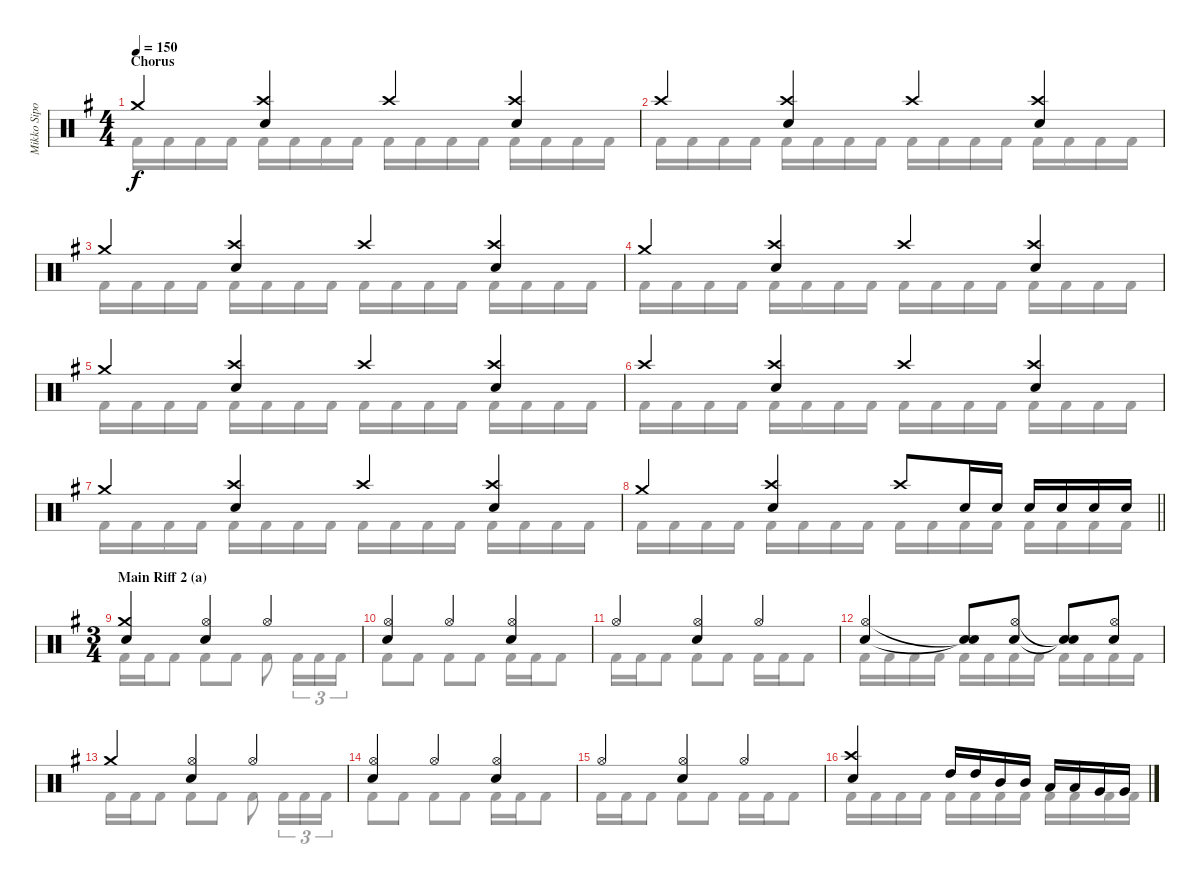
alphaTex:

\track ("Mikko Sipola (drums)" "Mikko Sipo") {instrument percussion}
\staff {score}
\articulation defaults
\voice
\ts (4 4)
\section ("" "Chorus")
\tempo 150
\clef neutral
\ks eminor "Crash medium (hit)".4{dy f}
("Crash high (hit)" "Electric Snare (hit)").4 "Crash high (hit)".4 ("Crash high (hit)" "Electric Snare (hit)").4 |
"Crash high (hit)".4 ("Crash high (hit)" "Electric Snare (hit)").4 "Crash high (hit)".4 ("Crash high (hit)" "Electric Snare (hit)").4 |
"Crash medium (hit)".4 ("Crash high (hit)" "Electric Snare (hit)").4 "Crash high (hit)".4 ("Crash high (hit)" "Electric Snare (hit)").4 |
"Crash medium (hit)".4 ("Crash high (hit)" "Electric Snare (hit)").4 "Crash high (hit)".4 ("Crash high (hit)" "Electric Snare (hit)").4 |
"Crash medium (hit)".4 ("Crash high (hit)" "Electric Snare (hit)").4 "Crash high (hit)".4 ("Crash high (hit)" "Electric Snare (hit)").4 |
"Crash high (hit)".4 ("Crash high (hit)" "Electric Snare (hit)").4 "Crash high (hit)".4 ("Crash high (hit)" "Electric Snare (hit)").4 |
"Crash medium (hit)".4 ("Crash high (hit)" "Electric Snare (hit)").4 "Crash high (hit)".4 ("Crash high (hit)" "Electric Snare (hit)").4 |
\barLineRight lightlight "Crash medium (hit)".4
("Crash high (hit)" "Electric Snare (hit)").4 "Crash high (hit)".8 "Electric Snare (hit)".16 "Electric Snare (hit)".16 "Electric Snare (hit)".16 "Electric Snare (hit)".16 "Electric Snare (hit)".16 "Electric Snare (hit)".16 |
\ts (3 4)
\section ("" "Main Riff 2 (a)")
("Crash medium (hit)" "Electric Snare (hit)").4 ("Hi-Hat (open)" "Electric Snare (hit)").4 "Hi-Hat (open)".4 |
("Hi-Hat (open)" "Electric Snare (hit)").4 "Hi-Hat (open)".4 ("Hi-Hat (open)" "Electric Snare (hit)").4 |
"Hi-Hat (open)".4 ("Hi-Hat (open)" "Electric Snare (hit)").4 "Hi-Hat (open)".4 |
("Hi-Hat (open)" "Electric Snare (hit)").4 ("Snare (hit)"{t} "Snare (hit)"{t}).8 ("Hi-Hat (open)" "Electric Snare (hit)").8 ("Snare (hit)"{t} "Snare (hit)"{t}).8 ("Hi-Hat (open)" "Electric Snare (hit)").8 |
"Crash medium (hit)".4 ("Hi-Hat (open)" "Electric Snare (hit)").4 "Hi-Hat (open)".4 |
("Hi-Hat (open)" "Electric Snare (hit)").4 "Hi-Hat (open)".4 ("Hi-Hat (open)" "Electric Snare (hit)").4 |
"Hi-Hat (open)".4 ("Hi-Hat (open)" "Electric Snare (hit)").4 "Hi-Hat (open)".4 |
("Crash high (hit)" "Electric Snare (hit)").4 "High Tom (hit)".16 "High Tom (hit)".16 "Mid Tom (hit)".16 "Mid Tom (hit)".16 "Low Tom (hit)".16 "Low Tom (hit)".16 "Very Low Tom (hit)".16 "Very Low Tom (hit)".16
\voice
\clef neutral
\ottava regular
\simile none
\ks eminor "Kick (hit) 2".16{dy f} "Kick (hit) 2".16 "Kick (hit) 2".16 "Kick (hit) 2".16 "Kick (hit) 2".16 "Kick (hit) 2".16 "Kick (hit) 2".16 "Kick (hit) 2".16 "Kick (hit) 2".16 "Kick (hit) 2".16 "Kick (hit) 2".16 "Kick (hit) 2".16 "Kick (hit) 2".16 "Kick (hit) 2".16 "Kick (hit) 2".16 "Kick (hit) 2".16
|
"Kick (hit) 2".16 "Kick (hit) 2".16 "Kick (hit) 2".16 "Kick (hit) 2".16 "Kick (hit) 2".16 "Kick (hit) 2".16 "Kick (hit) 2".16 "Kick (hit) 2".16 "Kick (hit) 2".16 "Kick (hit) 2".16 "Kick (hit) 2".16 "Kick (hit) 2".16 "Kick (hit) 2".16 "Kick (hit) 2".16 "Kick (hit) 2".16 "Kick (hit) 2".16 |
"Kick (hit) 2".16 "Kick (hit) 2".16 "Kick (hit) 2".16 "Kick (hit) 2".16 "Kick (hit) 2".16 "Kick (hit) 2".16 "Kick (hit) 2".16 "Kick (hit) 2".16 "Kick (hit) 2".16 "Kick (hit) 2".16 "Kick (hit) 2".16 "Kick (hit) 2".16 "Kick (hit) 2".16 "Kick (hit) 2".16 "Kick (hit) 2".16 "Kick (hit) 2".16 |
"Kick (hit) 2".16 "Kick (hit) 2".16 "Kick (hit) 2".16 "Kick (hit) 2".16 "Kick (hit) 2".16 "Kick (hit) 2".16 "Kick (hit) 2".16 "Kick (hit) 2".16 "Kick (hit) 2".16 "Kick (hit) 2".16 "Kick (hit) 2".16 "Kick (hit) 2".16 "Kick (hit) 2".16 "Kick (hit) 2".16 "Kick (hit) 2".16 "Kick (hit) 2".16 |
"Kick (hit) 2".16 "Kick (hit) 2".16 "Kick (hit) 2".16 "Kick (hit) 2".16 "Kick (hit) 2".16 "Kick (hit) 2".16 "Kick (hit) 2".16 "Kick (hit) 2".16 "Kick (hit) 2".16 "Kick (hit) 2".16 "Kick (hit) 2".16 "Kick (hit) 2".16 "Kick (hit) 2".16 "Kick (hit) 2".16 "Kick (hit) 2".16 "Kick (hit) 2".16 |
"Kick (hit) 2".16 "Kick (hit) 2".16 "Kick (hit) 2".16 "Kick (hit) 2".16 "Kick (hit) 2".16 "Kick (hit) 2".16 "Kick (hit) 2".16 "Kick (hit) 2".16 "Kick (hit) 2".16 "Kick (hit) 2".16 "Kick (hit) 2".16 "Kick (hit) 2".16 "Kick (hit) 2".16 "Kick (hit) 2".16 "Kick (hit) 2".16 "Kick (hit) 2".16 |
"Kick (hit) 2".16 "Kick (hit) 2".16 "Kick (hit) 2".16 "Kick (hit) 2".16 "Kick (hit) 2".16 "Kick (hit) 2".16 "Kick (hit) 2".16 "Kick (hit) 2".16 "Kick (hit) 2".16 "Kick (hit) 2".16 "Kick (hit) 2".16 "Kick (hit) 2".16 "Kick (hit) 2".16 "Kick (hit) 2".16 "Kick (hit) 2".16 "Kick (hit) 2".16 |
\barLineRight lightlight "Kick (hit) 2".16 "Kick (hit) 2".16 "Kick (hit) 2".16 "Kick (hit) 2".16 "Kick (hit) 2".16 "Kick (hit) 2".16 "Kick (hit) 2".16 "Kick (hit) 2".16 "Kick (hit) 2".16 "Kick (hit) 2".16 "Kick (hit) 2".16 "Kick (hit) 2".16 "Kick (hit) 2".16 "Kick (hit) 2".16 "Kick (hit) 2".16 "Kick (hit) 2".16
|
"Kick (hit) 2".16 "Kick (hit) 2".16 "Kick (hit) 2".8 "Kick (hit) 2".8 "Kick (hit) 2".8 "Kick (hit) 2".8 "Kick (hit) 2".16{tu (3 2)} "Kick (hit) 2".16{tu (3 2)} "Kick (hit) 2".16{tu (3 2)} |
"Kick (hit) 2".8 "Kick (hit) 2".8 "Kick (hit) 2".8 "Kick (hit) 2".8 "Kick (hit) 2".16 "Kick (hit) 2".16 "Kick (hit) 2".8 |
"Kick (hit) 2".16 "Kick (hit) 2".16 "Kick (hit) 2".8 "Kick (hit) 2".8 "Kick (hit) 2".8 "Kick (hit) 2".16 "Kick (hit) 2".16 "Kick (hit) 2".8 |
"Kick (hit) 2".16 "Kick (hit) 2".16 "Kick (hit) 2".16 "Kick (hit) 2".16 "Kick (hit) 2".16 "Kick (hit) 2".16 "Kick (hit) 2".16 "Kick (hit) 2".16 "Kick (hit) 2".16 "Kick (hit) 2".16 "Kick (hit) 2".16 "Kick (hit) 2".16 |
"Kick (hit) 2".16 "Kick (hit) 2".16 "Kick (hit) 2".8 "Kick (hit) 2".8 "Kick (hit) 2".8 "Kick (hit) 2".8 "Kick (hit) 2".16{tu (3 2)} "Kick (hit) 2".16{tu (3 2)} "Kick (hit) 2".16{tu (3 2)} |
"Kick (hit) 2".8 "Kick (hit) 2".8 "Kick (hit) 2".8 "Kick (hit) 2".8 "Kick (hit) 2".16 "Kick (hit) 2".16 "Kick (hit) 2".8 |
"Kick (hit) 2".16 "Kick (hit) 2".16 "Kick (hit) 2".8 "Kick (hit) 2".8 "Kick (hit) 2".8 "Kick (hit) 2".16 "Kick (hit) 2".16 "Kick (hit) 2".8 |
"Kick (hit) 2".16 "Kick (hit) 2".16 "Kick (hit) 2".16 "Kick (hit) 2".16 "Kick (hit) 2".16 "Kick (hit) 2".16 "Kick (hit) 2".16 "Kick (hit) 2".16 "Kick (hit) 2".16 "Kick (hit) 2".16 "Kick (hit) 2".16 "Kick (hit) 2".16
